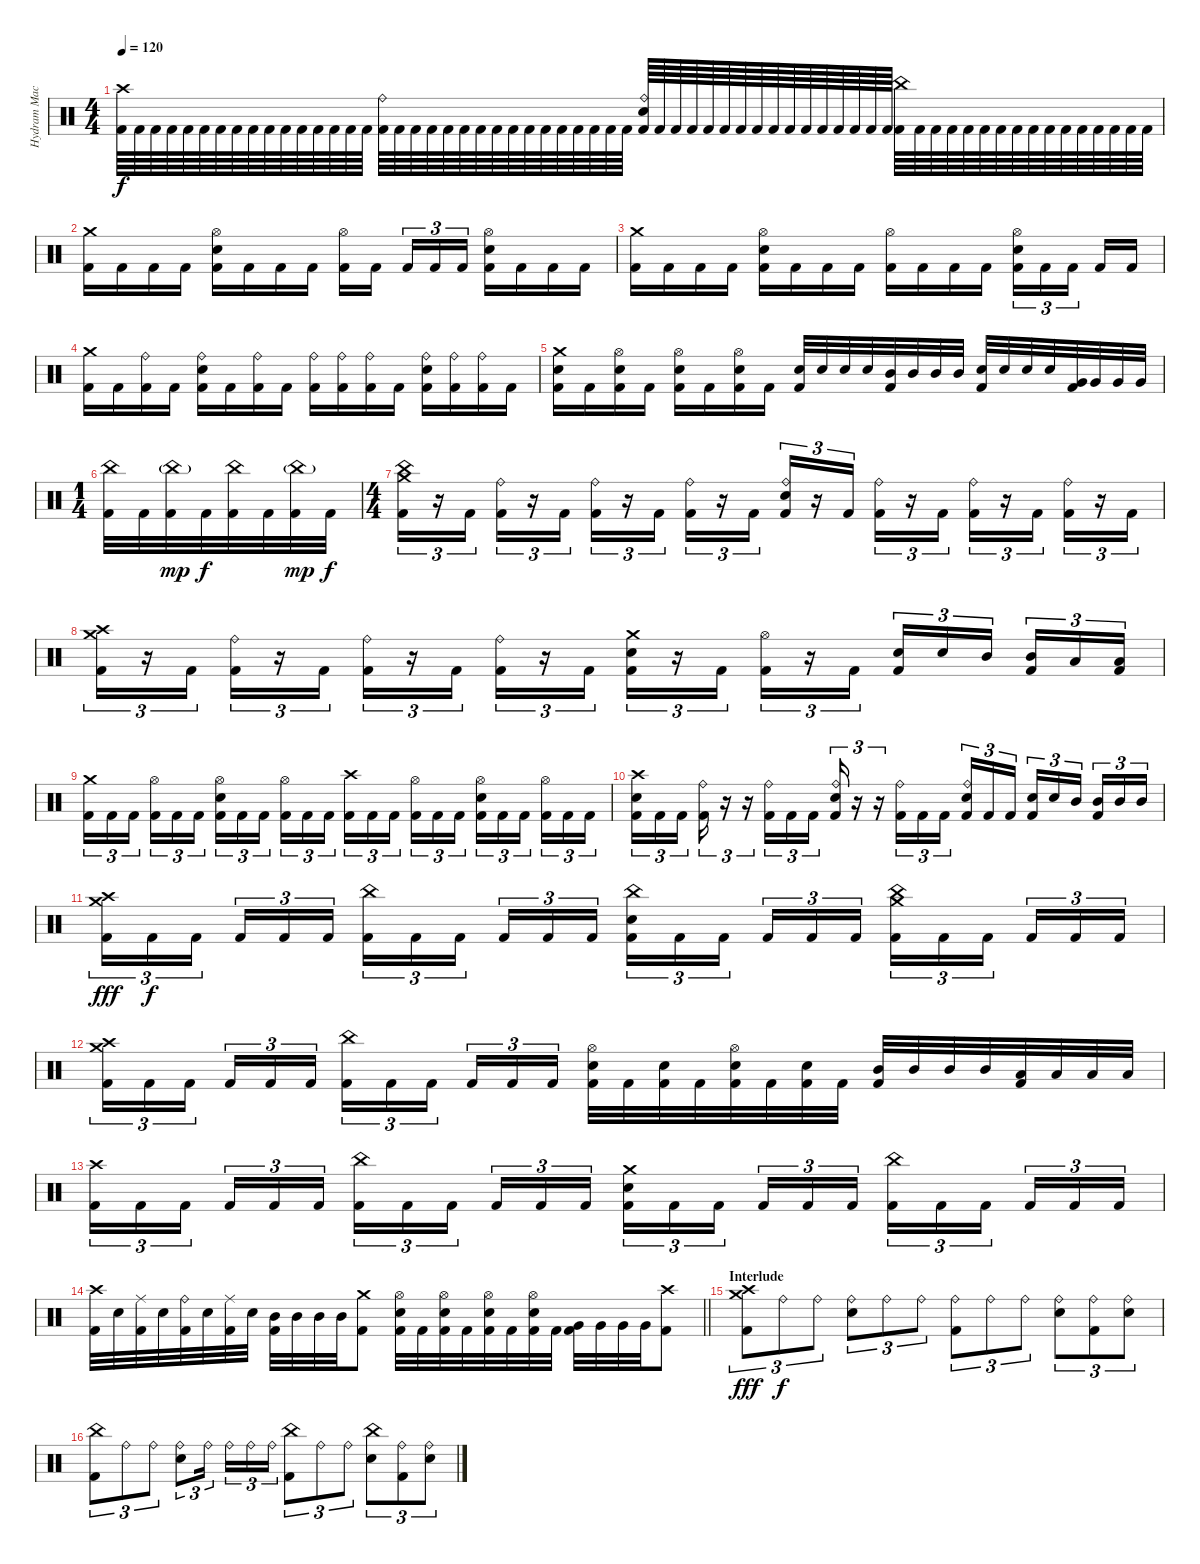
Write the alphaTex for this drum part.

\track ("Hydram Machine" "Hydram Mac") {instrument percussion}
\staff {score}
\articulation defaults
\ts (4 4)
\tempo 120
\clef neutral
\ks c
("Crash high (hit)" "Kick (hit) 2").64{dy f} "Kick (hit) 2".64 "Kick (hit) 2".64 "Kick (hit) 2".64 "Kick (hit) 2".64 "Kick (hit) 2".64 "Kick (hit) 2".64 "Kick (hit) 2".64 "Kick (hit) 2".64 "Kick (hit) 2".64 "Kick (hit) 2".64 "Kick (hit) 2".64 "Kick (hit) 2".64 "Kick (hit) 2".64 "Kick (hit) 2".64 "Kick (hit) 2".64 ("Ride (bell)" "Kick (hit) 2").64 "Kick (hit) 2".64 "Kick (hit) 2".64 "Kick (hit) 2".64 "Kick (hit) 2".64 "Kick (hit) 2".64 "Kick (hit) 2".64 "Kick (hit) 2".64 "Kick (hit) 2".64 "Kick (hit) 2".64 "Kick (hit) 2".64 "Kick (hit) 2".64 "Kick (hit) 2".64 "Kick (hit) 2".64 "Kick (hit) 2".64 "Kick (hit) 2".64 ("Ride (bell)" "Electric Snare (hit)" "Kick (hit) 2").64 "Kick (hit) 2".64 "Kick (hit) 2".64 "Kick (hit) 2".64 "Kick (hit) 2".64 "Kick (hit) 2".64 "Kick (hit) 2".64 "Kick (hit) 2".64 "Kick (hit) 2".64 "Kick (hit) 2".64 "Kick (hit) 2".64 "Kick (hit) 2".64 "Kick (hit) 2".64 "Kick (hit) 2".64 "Kick (hit) 2".64 "Kick (hit) 2".64 ("China (hit)" "Kick (hit) 2").64 "Kick (hit) 2".64 "Kick (hit) 2".64 "Kick (hit) 2".64 "Kick (hit) 2".64 "Kick (hit) 2".64 "Kick (hit) 2".64 "Kick (hit) 2".64 "Kick (hit) 2".64 "Kick (hit) 2".64 "Kick (hit) 2".64 "Kick (hit) 2".64 "Kick (hit) 2".64 "Kick (hit) 2".64 "Kick (hit) 2".64 "Kick (hit) 2".64 |
("Crash medium (hit)" "Kick (hit) 2").16 "Kick (hit) 2".16 "Kick (hit) 2".16 "Kick (hit) 2".16 ("Hi-Hat (open)" "Electric Snare (hit)" "Kick (hit) 2").16 "Kick (hit) 2".16 "Kick (hit) 2".16 "Kick (hit) 2".16 ("Hi-Hat (open)" "Kick (hit) 2").16 "Kick (hit) 2".16{beam splitsecondary} "Kick (hit) 2".16{tu (3 2)} "Kick (hit) 2".16{tu (3 2)} "Kick (hit) 2".16{tu (3 2)} ("Hi-Hat (open)" "Electric Snare (hit)" "Kick (hit) 2").16 "Kick (hit) 2".16 "Kick (hit) 2".16 "Kick (hit) 2".16 |
("Crash medium (hit)" "Kick (hit) 2").16 "Kick (hit) 2".16 "Kick (hit) 2".16 "Kick (hit) 2".16 ("Hi-Hat (open)" "Electric Snare (hit)" "Kick (hit) 2").16 "Kick (hit) 2".16 "Kick (hit) 2".16 "Kick (hit) 2".16 ("Hi-Hat (open)" "Kick (hit) 2").16 "Kick (hit) 2".16 "Kick (hit) 2".16 "Kick (hit) 2".16 ("Hi-Hat (open)" "Electric Snare (hit)" "Kick (hit) 2").16{tu (3 2)} "Kick (hit) 2".16{tu (3 2)} "Kick (hit) 2".16{tu (3 2) beam splitsecondary} "Kick (hit) 2".16 "Kick (hit) 2".16 |
("Crash medium (hit)" "Kick (hit) 2").16 "Kick (hit) 2".16 ("Ride (bell)" "Kick (hit) 2").16 "Kick (hit) 2".16 ("Ride (bell)" "Electric Snare (hit)" "Kick (hit) 2").16 "Kick (hit) 2".16 ("Ride (bell)" "Kick (hit) 2").16 "Kick (hit) 2".16 ("Ride (bell)" "Kick (hit) 2").16 ("Ride (bell)" "Kick (hit) 2").16 ("Ride (bell)" "Kick (hit) 2").16 "Kick (hit) 2".16 ("Ride (bell)" "Electric Snare (hit)" "Kick (hit) 2").16 ("Ride (bell)" "Kick (hit) 2").16 ("Ride (bell)" "Kick (hit) 2").16 "Kick (hit) 2".16 |
("Crash medium (hit)" "Electric Snare (hit)" "Kick (hit) 2").16 "Kick (hit) 2".16 ("Hi-Hat (open)" "Electric Snare (hit)" "Kick (hit) 2").16 "Kick (hit) 2".16 ("Hi-Hat (open)" "Electric Snare (hit)" "Kick (hit) 2").16 "Kick (hit) 2".16 ("Hi-Hat (open)" "Electric Snare (hit)" "Kick (hit) 2").16 "Kick (hit) 2".16 ("Electric Snare (hit)" "Kick (hit) 2").32 "Electric Snare (hit)".32 "Electric Snare (hit)".32 "Electric Snare (hit)".32 ("Mid Tom (hit)" "Kick (hit) 2").32 "Mid Tom (hit)".32 "Mid Tom (hit)".32 "Mid Tom (hit)".32 ("Electric Snare (hit)" "Kick (hit) 2").32 "Electric Snare (hit)".32 "Electric Snare (hit)".32 "Electric Snare (hit)".32 ("Very Low Tom (hit)" "Kick (hit) 2").32 "Very Low Tom (hit)".32 "Very Low Tom (hit)".32 "Very Low Tom (hit)".32 |
\ts (1 4)
("China (hit)" "Kick (hit) 2").32 "Kick (hit) 2".32 ("China (hit)"{g} "Kick (hit) 2").32{dy mp} "Kick (hit) 2".32{dy f} ("China (hit)" "Kick (hit) 2").32 "Kick (hit) 2".32 ("China (hit)"{g} "Kick (hit) 2").32{dy mp} "Kick (hit) 2".32{dy f} |
\ts (4 4)
("Crash medium (hit)" "China (hit)" "Kick (hit) 2").16{tu (3 2)} r.16{tu (3 2)} "Kick (hit) 2".16{tu (3 2)} ("Ride (bell)" "Kick (hit) 2").16{tu (3 2)} r.16{tu (3 2)} "Kick (hit) 2".16{tu (3 2)} ("Ride (bell)" "Kick (hit) 2").16{tu (3 2)} r.16{tu (3 2)} "Kick (hit) 2".16{tu (3 2)} ("Ride (bell)" "Kick (hit) 2").16{tu (3 2)} r.16{tu (3 2)} "Kick (hit) 2".16{tu (3 2)} ("Ride (bell)" "Electric Snare (hit)" "Kick (hit) 2").16{tu (3 2)} r.16{tu (3 2)} "Kick (hit) 2".16{tu (3 2)} ("Ride (bell)" "Kick (hit) 2").16{tu (3 2)} r.16{tu (3 2)} "Kick (hit) 2".16{tu (3 2)} ("Ride (bell)" "Kick (hit) 2").16{tu (3 2)} r.16{tu (3 2)} "Kick (hit) 2".16{tu (3 2)} ("Ride (bell)" "Kick (hit) 2").16{tu (3 2)} r.16{tu (3 2)} "Kick (hit) 2".16{tu (3 2)} |
("Crash high (hit)" "Crash medium (hit)" "Kick (hit) 2").16{tu (3 2)} r.16{tu (3 2)} "Kick (hit) 2".16{tu (3 2)} ("Ride (bell)" "Kick (hit) 2").16{tu (3 2)} r.16{tu (3 2)} "Kick (hit) 2".16{tu (3 2)} ("Ride (bell)" "Kick (hit) 2").16{tu (3 2)} r.16{tu (3 2)} "Kick (hit) 2".16{tu (3 2)} ("Ride (bell)" "Kick (hit) 2").16{tu (3 2)} r.16{tu (3 2)} "Kick (hit) 2".16{tu (3 2)} ("Crash medium (hit)" "Electric Snare (hit)" "Kick (hit) 2").16{tu (3 2)} r.16{tu (3 2)} "Kick (hit) 2".16{tu (3 2)} ("Hi-Hat (open)" "Kick (hit) 2").16{tu (3 2)} r.16{tu (3 2)} "Kick (hit) 2".16{tu (3 2)} ("Electric Snare (hit)" "Kick (hit) 2").16{tu (3 2)} "Electric Snare (hit)".16{tu (3 2)} "Mid Tom (hit)".16{tu (3 2) beam splitsecondary} ("Mid Tom (hit)" "Kick (hit) 2").16{tu (3 2)} "Low Tom (hit)".16{tu (3 2)} ("Low Tom (hit)" "Kick (hit) 2").16{tu (3 2)} |
("Crash medium (hit)" "Kick (hit) 2").16{tu (3 2)} "Kick (hit) 2".16{tu (3 2)} "Kick (hit) 2".16{tu (3 2) beam splitsecondary} ("Hi-Hat (open)" "Kick (hit) 2").16{tu (3 2)} "Kick (hit) 2".16{tu (3 2)} "Kick (hit) 2".16{tu (3 2)} ("Hi-Hat (open)" "Electric Snare (hit)" "Kick (hit) 2").16{tu (3 2)} "Kick (hit) 2".16{tu (3 2)} "Kick (hit) 2".16{tu (3 2) beam splitsecondary} ("Hi-Hat (open)" "Kick (hit) 2").16{tu (3 2)} "Kick (hit) 2".16{tu (3 2)} "Kick (hit) 2".16{tu (3 2)} ("Crash high (hit)" "Kick (hit) 2").16{tu (3 2)} "Kick (hit) 2".16{tu (3 2)} "Kick (hit) 2".16{tu (3 2) beam splitsecondary} ("Hi-Hat (open)" "Kick (hit) 2").16{tu (3 2)} "Kick (hit) 2".16{tu (3 2)} "Kick (hit) 2".16{tu (3 2)} ("Hi-Hat (open)" "Electric Snare (hit)" "Kick (hit) 2").16{tu (3 2)} "Kick (hit) 2".16{tu (3 2)} "Kick (hit) 2".16{tu (3 2) beam splitsecondary} ("Hi-Hat (open)" "Kick (hit) 2").16{tu (3 2)} "Kick (hit) 2".16{tu (3 2)} "Kick (hit) 2".16{tu (3 2)} |
("Crash high (hit)" "Electric Snare (hit)" "Kick (hit) 2").16{tu (3 2)} "Kick (hit) 2".16{tu (3 2)} "Kick (hit) 2".16{tu (3 2) beam splitsecondary} ("Ride (bell)" "Kick (hit) 2").16{tu (3 2)} r.16{tu (3 2)} r.16{tu (3 2)} ("Ride (bell)" "Kick (hit) 2").16{tu (3 2)} "Kick (hit) 2".16{tu (3 2)} "Kick (hit) 2".16{tu (3 2) beam splitsecondary} ("Ride (bell)" "Electric Snare (hit)" "Kick (hit) 2").16{tu (3 2)} r.16{tu (3 2)} r.16{tu (3 2)} ("Ride (bell)" "Kick (hit) 2").16{tu (3 2)} "Kick (hit) 2".16{tu (3 2)} "Kick (hit) 2".16{tu (3 2) beam splitsecondary} ("Ride (bell)" "Electric Snare (hit)" "Kick (hit) 2").16{tu (3 2)} "Kick (hit) 2".16{tu (3 2)} "Kick (hit) 2".16{tu (3 2)} ("Electric Snare (hit)" "Kick (hit) 2").16{tu (3 2)} "Electric Snare (hit)".16{tu (3 2)} "Mid Tom (hit)".16{tu (3 2) beam splitsecondary} ("Mid Tom (hit)" "Kick (hit) 2").16{tu (3 2)} "Mid Tom (hit)".16{tu (3 2)} "Mid Tom (hit)".16{tu (3 2)} |
("Crash high (hit)" "Crash medium (hit)" "Kick (hit) 2").16{tu (3 2) dy fff} "Kick (hit) 2".16{tu (3 2) dy f} "Kick (hit) 2".16{tu (3 2) beam splitsecondary} "Kick (hit) 2".16{tu (3 2)} "Kick (hit) 2".16{tu (3 2)} "Kick (hit) 2".16{tu (3 2)} ("China (hit)" "Kick (hit) 2").16{tu (3 2)} "Kick (hit) 2".16{tu (3 2)} "Kick (hit) 2".16{tu (3 2) beam splitsecondary} "Kick (hit) 2".16{tu (3 2)} "Kick (hit) 2".16{tu (3 2)} "Kick (hit) 2".16{tu (3 2)} ("China (hit)" "Electric Snare (hit)" "Kick (hit) 2").16{tu (3 2)} "Kick (hit) 2".16{tu (3 2)} "Kick (hit) 2".16{tu (3 2) beam splitsecondary} "Kick (hit) 2".16{tu (3 2)} "Kick (hit) 2".16{tu (3 2)} "Kick (hit) 2".16{tu (3 2)} ("Crash medium (hit)" "China (hit)" "Kick (hit) 2").16{tu (3 2)} "Kick (hit) 2".16{tu (3 2)} "Kick (hit) 2".16{tu (3 2) beam splitsecondary} "Kick (hit) 2".16{tu (3 2)} "Kick (hit) 2".16{tu (3 2)} "Kick (hit) 2".16{tu (3 2)} |
("Crash high (hit)" "Crash medium (hit)" "Kick (hit) 2").16{tu (3 2)} "Kick (hit) 2".16{tu (3 2)} "Kick (hit) 2".16{tu (3 2) beam splitsecondary} "Kick (hit) 2".16{tu (3 2)} "Kick (hit) 2".16{tu (3 2)} "Kick (hit) 2".16{tu (3 2)} ("China (hit)" "Kick (hit) 2").16{tu (3 2)} "Kick (hit) 2".16{tu (3 2)} "Kick (hit) 2".16{tu (3 2) beam splitsecondary} "Kick (hit) 2".16{tu (3 2)} "Kick (hit) 2".16{tu (3 2)} "Kick (hit) 2".16{tu (3 2)} ("Hi-Hat (open)" "Electric Snare (hit)" "Kick (hit) 2").32 "Kick (hit) 2".32 ("Electric Snare (hit)" "Kick (hit) 2").32 "Kick (hit) 2".32 ("Hi-Hat (open)" "Electric Snare (hit)" "Kick (hit) 2").32 "Kick (hit) 2".32 ("Electric Snare (hit)" "Kick (hit) 2").32 "Kick (hit) 2".32 ("Mid Tom (hit)" "Kick (hit) 2").32 "Mid Tom (hit)".32 "Mid Tom (hit)".32 "Mid Tom (hit)".32 ("Low Tom (hit)" "Kick (hit) 2").32 "Low Tom (hit)".32 "Low Tom (hit)".32 "Low Tom (hit)".32 |
("Crash high (hit)" "Kick (hit) 2").16{tu (3 2)} "Kick (hit) 2".16{tu (3 2)} "Kick (hit) 2".16{tu (3 2) beam splitsecondary} "Kick (hit) 2".16{tu (3 2)} "Kick (hit) 2".16{tu (3 2)} "Kick (hit) 2".16{tu (3 2)} ("China (hit)" "Kick (hit) 2").16{tu (3 2)} "Kick (hit) 2".16{tu (3 2)} "Kick (hit) 2".16{tu (3 2) beam splitsecondary} "Kick (hit) 2".16{tu (3 2)} "Kick (hit) 2".16{tu (3 2)} "Kick (hit) 2".16{tu (3 2)} ("Crash medium (hit)" "Electric Snare (hit)" "Kick (hit) 2").16{tu (3 2)} "Kick (hit) 2".16{tu (3 2)} "Kick (hit) 2".16{tu (3 2) beam splitsecondary} "Kick (hit) 2".16{tu (3 2)} "Kick (hit) 2".16{tu (3 2)} "Kick (hit) 2".16{tu (3 2)} ("China (hit)" "Kick (hit) 2").16{tu (3 2)} "Kick (hit) 2".16{tu (3 2)} "Kick (hit) 2".16{tu (3 2) beam splitsecondary} "Kick (hit) 2".16{tu (3 2)} "Kick (hit) 2".16{tu (3 2)} "Kick (hit) 2".16{tu (3 2)} |
\barLineRight lightlight
("Crash high (hit)" "Kick (hit) 2").32 "Electric Snare (hit)".32 ("Ride (middle)" "Kick (hit) 2").32 "Electric Snare (hit)".32 ("Ride (bell)" "Kick (hit) 2").32 "Electric Snare (hit)".32 ("Ride (middle)" "Kick (hit) 2").32 "Electric Snare (hit)".32 ("Mid Tom (hit)" "Kick (hit) 2").32 "Mid Tom (hit)".32 "Mid Tom (hit)".32 "Mid Tom (hit)".32 ("Crash medium (hit)" "Kick (hit) 2").8 ("Hi-Hat (open)" "Electric Snare (hit)" "Kick (hit) 2").32 "Kick (hit) 2".32 ("Hi-Hat (open)" "Electric Snare (hit)" "Kick (hit) 2").32 "Kick (hit) 2".32 ("Hi-Hat (open)" "Electric Snare (hit)" "Kick (hit) 2").32 "Kick (hit) 2".32 ("Hi-Hat (open)" "Electric Snare (hit)" "Kick (hit) 2").32 "Kick (hit) 2".32 ("Very Low Tom (hit)" "Kick (hit) 2").32 "Very Low Tom (hit)".32 "Very Low Tom (hit)".32 "Very Low Tom (hit)".32 ("Crash high (hit)" "Kick (hit) 2").8 |
\section ("" "Interlude")
("Crash medium (hit)" "Crash high (hit)" "Kick (hit) 2").8{tu (3 2) dy fff} "Ride (bell)".8{tu (3 2) dy f} "Ride (bell)".8{tu (3 2)} ("Ride (bell)" "Electric Snare (hit)").8{tu (3 2)} "Ride (bell)".8{tu (3 2)} "Ride (bell)".8{tu (3 2)} ("Ride (bell)" "Kick (hit) 2").8{tu (3 2)} "Ride (bell)".8{tu (3 2)} "Ride (bell)".8{tu (3 2)} ("Ride (bell)" "Electric Snare (hit)").8{tu (3 2)} ("Ride (bell)" "Kick (hit) 2").8{tu (3 2)} ("Ride (bell)" "Electric Snare (hit)").8{tu (3 2)} |
("China (hit)" "Kick (hit) 2").8{tu (3 2)} "Ride (bell)".8{tu (3 2)} "Ride (bell)".8{tu (3 2)} ("Ride (bell)" "Electric Snare (hit)").8{tu (3 2)} "Ride (bell)".16{tu (3 2) beam splitsecondary} "Ride (bell)".16{tu (3 2)} "Ride (bell)".16{tu (3 2)} "Ride (bell)".16{tu (3 2)} ("China (hit)" "Kick (hit) 2").8{tu (3 2)} "Ride (bell)".8{tu (3 2)} "Ride (bell)".8{tu (3 2)} ("China (hit)" "Electric Snare (hit)").8{tu (3 2)} ("Ride (bell)" "Kick (hit) 2").8{tu (3 2)} ("Ride (bell)" "Electric Snare (hit)").8{tu (3 2)}
